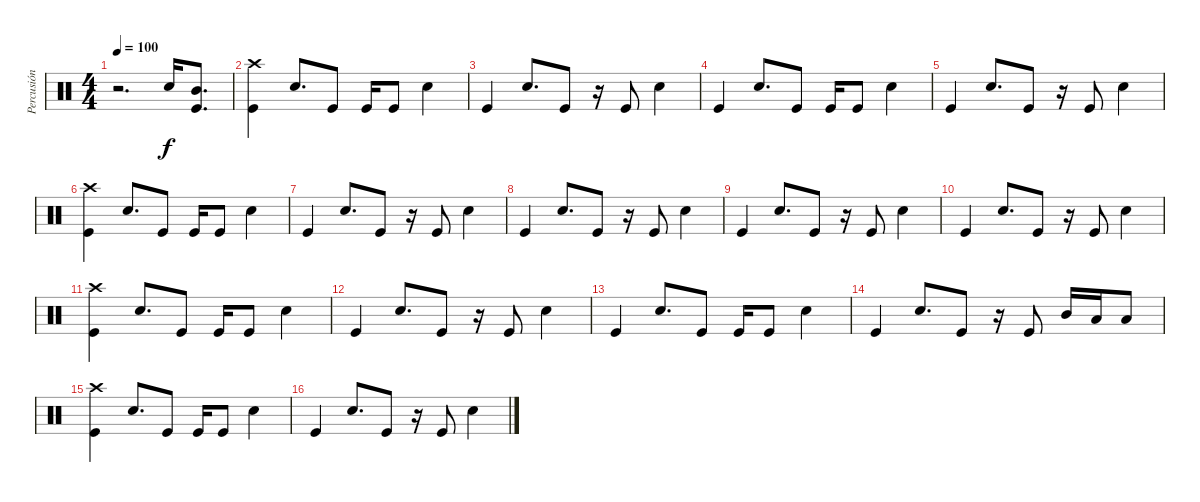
\track ("Percusión" "Percusión") {instrument percussion}
\staff {score}
\articulation defaults
\ts (4 4)
\tempo 100
\clef neutral
\ks c
r.2{d dy f} "Snare (hit) 2".16 ("Mid Tom (hit)" "Kick (hit)").8{d} |
("Crash high (hit)" "Kick (hit)").4 "Snare (hit) 2".8{d} "Kick (hit)".8 "Kick (hit)".16 "Kick (hit)".8 "Snare (hit) 2".4 |
"Kick (hit)".4 "Snare (hit) 2".8{d} "Kick (hit)".8 r.16 "Kick (hit)".8 "Snare (hit) 2".4 |
"Kick (hit)".4 "Snare (hit) 2".8{d} "Kick (hit)".8 "Kick (hit)".16 "Kick (hit)".8 "Snare (hit) 2".4 |
"Kick (hit)".4 "Snare (hit) 2".8{d} "Kick (hit)".8 r.16 "Kick (hit)".8 "Snare (hit) 2".4 |
("Crash high (hit)" "Kick (hit)").4 "Snare (hit) 2".8{d} "Kick (hit)".8 "Kick (hit)".16 "Kick (hit)".8 "Snare (hit) 2".4 |
"Kick (hit)".4 "Snare (hit) 2".8{d} "Kick (hit)".8 r.16 "Kick (hit)".8 "Snare (hit) 2".4 |
"Kick (hit)".4 "Snare (hit) 2".8{d} "Kick (hit)".8 r.16 "Kick (hit)".8 "Snare (hit) 2".4 |
"Kick (hit)".4 "Snare (hit) 2".8{d} "Kick (hit)".8 r.16 "Kick (hit)".8 "Snare (hit) 2".4 |
"Kick (hit)".4 "Snare (hit) 2".8{d} "Kick (hit)".8 r.16 "Kick (hit)".8 "Snare (hit) 2".4 |
("Crash high (hit)" "Kick (hit)").4 "Snare (hit) 2".8{d} "Kick (hit)".8 "Kick (hit)".16 "Kick (hit)".8 "Snare (hit) 2".4 |
"Kick (hit)".4 "Snare (hit) 2".8{d} "Kick (hit)".8 r.16 "Kick (hit)".8 "Snare (hit) 2".4 |
"Kick (hit)".4 "Snare (hit) 2".8{d} "Kick (hit)".8 "Kick (hit)".16 "Kick (hit)".8 "Snare (hit) 2".4 |
"Kick (hit)".4 "Snare (hit) 2".8{d} "Kick (hit)".8 r.16 "Kick (hit)".8 "Mid Tom (hit)".16 "Low Floor Tom (hit)".16 "Low Tom (hit)".8 |
("Crash high (hit)" "Kick (hit)").4 "Snare (hit) 2".8{d} "Kick (hit)".8 "Kick (hit)".16 "Kick (hit)".8 "Snare (hit) 2".4 |
"Kick (hit)".4 "Snare (hit) 2".8{d} "Kick (hit)".8 r.16 "Kick (hit)".8 "Snare (hit) 2".4
